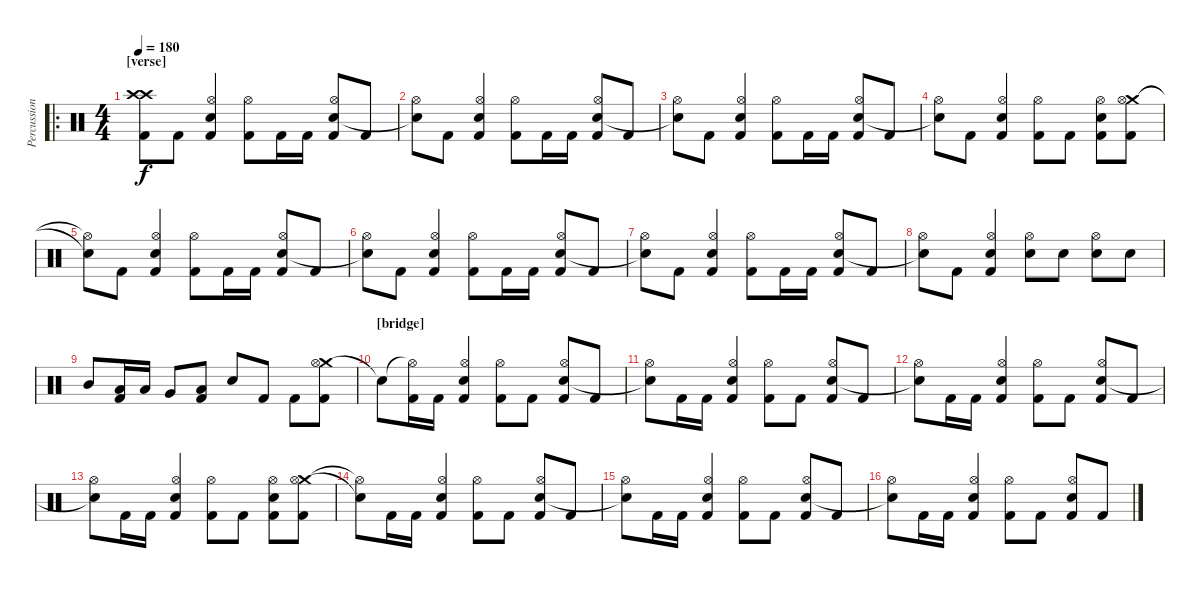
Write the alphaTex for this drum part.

\track ("Percussion" "Percussion") {instrument percussion}
\staff {score}
\articulation defaults
\ro
\ts (4 4)
\section ("" "[verse]")
\tempo 180
\clef neutral
\ks c
("Crash high (hit)" "Crash high (hit)" "Kick (hit) 2").8{dy f} "Kick (hit) 2".8 ("Hi-Hat (open)" "Electric Snare (hit)" "Kick (hit) 2").4 ("Hi-Hat (open)" "Kick (hit) 2").8 "Kick (hit) 2".16 "Kick (hit) 2".16 ("Hi-Hat (open)" "Electric Snare (hit)" "Kick (hit) 2").8 "Kick (hit) 2".8 |
("Hi-Hat (open)" "Snare (hit)"{t}).8 "Kick (hit) 2".8 ("Hi-Hat (open)" "Electric Snare (hit)" "Kick (hit) 2").4 ("Hi-Hat (open)" "Kick (hit) 2").8 "Kick (hit) 2".16 "Kick (hit) 2".16 ("Hi-Hat (open)" "Electric Snare (hit)" "Kick (hit) 2").8 "Kick (hit) 2".8 |
("Hi-Hat (open)" "Snare (hit)"{t}).8 "Kick (hit) 2".8 ("Hi-Hat (open)" "Electric Snare (hit)" "Kick (hit) 2").4 ("Hi-Hat (open)" "Kick (hit) 2").8 "Kick (hit) 2".16 "Kick (hit) 2".16 ("Hi-Hat (open)" "Electric Snare (hit)" "Kick (hit) 2").8 "Kick (hit) 2".8 |
("Hi-Hat (open)" "Snare (hit)"{t}).8 "Kick (hit) 2".8 ("Hi-Hat (open)" "Electric Snare (hit)" "Kick (hit) 2").4 ("Hi-Hat (open)" "Kick (hit) 2").8 "Kick (hit) 2".8 ("Hi-Hat (open)" "Electric Snare (hit)" "Kick (hit) 2").8 ("Crash medium (hit)" "Hi-Hat (open)" "Kick (hit) 2").8 |
("Hi-Hat (open)"{t} "Snare (hit)"{t}).8 "Kick (hit) 2".8 ("Hi-Hat (open)" "Electric Snare (hit)" "Kick (hit) 2").4 ("Hi-Hat (open)" "Kick (hit) 2").8 "Kick (hit) 2".16 "Kick (hit) 2".16 ("Hi-Hat (open)" "Electric Snare (hit)" "Kick (hit) 2").8 "Kick (hit) 2".8 |
("Hi-Hat (open)" "Snare (hit)"{t}).8 "Kick (hit) 2".8 ("Hi-Hat (open)" "Electric Snare (hit)" "Kick (hit) 2").4 ("Hi-Hat (open)" "Kick (hit) 2").8 "Kick (hit) 2".16 "Kick (hit) 2".16 ("Hi-Hat (open)" "Electric Snare (hit)" "Kick (hit) 2").8 "Kick (hit) 2".8 |
("Hi-Hat (open)" "Snare (hit)"{t}).8 "Kick (hit) 2".8 ("Hi-Hat (open)" "Electric Snare (hit)" "Kick (hit) 2").4 ("Hi-Hat (open)" "Kick (hit) 2").8 "Kick (hit) 2".16 "Kick (hit) 2".16 ("Hi-Hat (open)" "Electric Snare (hit)" "Kick (hit) 2").8 "Kick (hit) 2".8 |
("Hi-Hat (open)" "Snare (hit)"{t}).8 "Kick (hit) 2".8 ("Hi-Hat (open)" "Electric Snare (hit)" "Kick (hit) 2").4 ("Hi-Hat (open)" "Electric Snare (hit)").8 "Electric Snare (hit)".8 ("Hi-Hat (open)" "Electric Snare (hit)").8 "Electric Snare (hit)".8 |
"Mid Tom (hit)".8 ("Low Tom (hit)" "Kick (hit) 2").16 "Low Tom (hit)".16 "Very Low Tom (hit)".8 ("Low Floor Tom (hit)" "Kick (hit) 2").8 "Electric Snare (hit)".8 "Kick (hit) 2".8 "Kick (hit) 2".8 ("Crash medium (hit)" "Hi-Hat (open)" "Kick (hit) 2").8 |
\section ("" "[bridge]")
"Snare (hit)"{t}.8 ("Hi-Hat (open)"{t} "Kick (hit) 2").16 "Kick (hit) 2".16 ("Hi-Hat (open)" "Electric Snare (hit)" "Kick (hit) 2").4 ("Hi-Hat (open)" "Kick (hit) 2").8 "Kick (hit) 2".8 ("Hi-Hat (open)" "Electric Snare (hit)" "Kick (hit) 2").8 "Kick (hit) 2".8 |
("Hi-Hat (open)" "Snare (hit)"{t}).8 "Kick (hit) 2".16 "Kick (hit) 2".16 ("Hi-Hat (open)" "Electric Snare (hit)" "Kick (hit) 2").4 ("Hi-Hat (open)" "Kick (hit) 2").8 "Kick (hit) 2".8 ("Hi-Hat (open)" "Electric Snare (hit)" "Kick (hit) 2").8 "Kick (hit) 2".8 |
("Hi-Hat (open)" "Snare (hit)"{t}).8 "Kick (hit) 2".16 "Kick (hit) 2".16 ("Hi-Hat (open)" "Electric Snare (hit)" "Kick (hit) 2").4 ("Hi-Hat (open)" "Kick (hit) 2").8 "Kick (hit) 2".8 ("Hi-Hat (open)" "Electric Snare (hit)" "Kick (hit) 2").8 "Kick (hit) 2".8 |
("Hi-Hat (open)" "Snare (hit)"{t}).8 "Kick (hit) 2".16 "Kick (hit) 2".16 ("Hi-Hat (open)" "Electric Snare (hit)" "Kick (hit) 2").4 ("Hi-Hat (open)" "Kick (hit) 2").8 "Kick (hit) 2".8 ("Hi-Hat (open)" "Electric Snare (hit)" "Kick (hit) 2").8 ("Crash medium (hit)" "Hi-Hat (open)" "Kick (hit) 2").8 |
("Hi-Hat (open)"{t} "Snare (hit)"{t}).8 "Kick (hit) 2".16 "Kick (hit) 2".16 ("Hi-Hat (open)" "Electric Snare (hit)" "Kick (hit) 2").4 ("Hi-Hat (open)" "Kick (hit) 2").8 "Kick (hit) 2".8 ("Hi-Hat (open)" "Electric Snare (hit)" "Kick (hit) 2").8 "Kick (hit) 2".8 |
("Hi-Hat (open)" "Snare (hit)"{t}).8 "Kick (hit) 2".16 "Kick (hit) 2".16 ("Hi-Hat (open)" "Electric Snare (hit)" "Kick (hit) 2").4 ("Hi-Hat (open)" "Kick (hit) 2").8 "Kick (hit) 2".8 ("Hi-Hat (open)" "Electric Snare (hit)" "Kick (hit) 2").8 "Kick (hit) 2".8 |
("Hi-Hat (open)" "Snare (hit)"{t}).8 "Kick (hit) 2".16 "Kick (hit) 2".16 ("Hi-Hat (open)" "Electric Snare (hit)" "Kick (hit) 2").4 ("Hi-Hat (open)" "Kick (hit) 2").8 "Kick (hit) 2".8 ("Hi-Hat (open)" "Electric Snare (hit)" "Kick (hit) 2").8 "Kick (hit) 2".8
